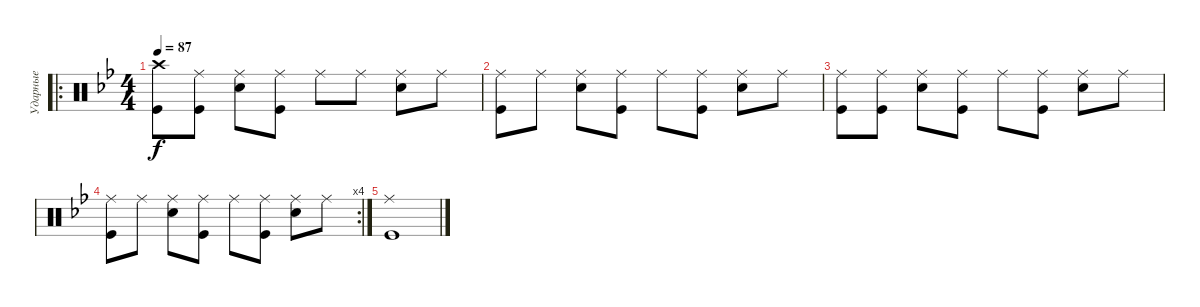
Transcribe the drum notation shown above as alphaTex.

\track ("Ударные" "Ударные") {instrument percussion}
\staff {score}
\articulation defaults
\ro
\ts (4 4)
\tempo 87
\clef neutral
\ks bb
("Crash high (hit)" "Kick (hit)").8{dy f} ("Ride (middle)" "Kick (hit)").8 ("Ride (middle)" "Snare (hit) 2").8 ("Ride (middle)" "Kick (hit)").8 "Ride (middle)".8 "Ride (middle)".8 ("Ride (middle)" "Snare (hit) 2").8 "Ride (middle)".8 |
("Ride (middle)" "Kick (hit)").8 "Ride (middle)".8 ("Ride (middle)" "Snare (hit) 2").8 ("Ride (middle)" "Kick (hit)").8 "Ride (middle)".8 ("Ride (middle)" "Kick (hit)").8 ("Ride (middle)" "Snare (hit) 2").8 "Ride (middle)".8 |
("Ride (middle)" "Kick (hit)").8 ("Ride (middle)" "Kick (hit)").8 ("Ride (middle)" "Snare (hit) 2").8 ("Ride (middle)" "Kick (hit)").8 "Ride (middle)".8 ("Ride (middle)" "Kick (hit)").8 ("Ride (middle)" "Snare (hit) 2").8 "Ride (middle)".8 |
\rc 4
("Ride (middle)" "Kick (hit)").8 "Ride (middle)".8 ("Ride (middle)" "Snare (hit) 2").8 ("Ride (middle)" "Kick (hit)").8 "Ride (middle)".8 ("Ride (middle)" "Kick (hit)").8 ("Ride (middle)" "Snare (hit) 2").8 "Ride (middle)".8 |
("Ride (middle)" "Kick (hit)").1
